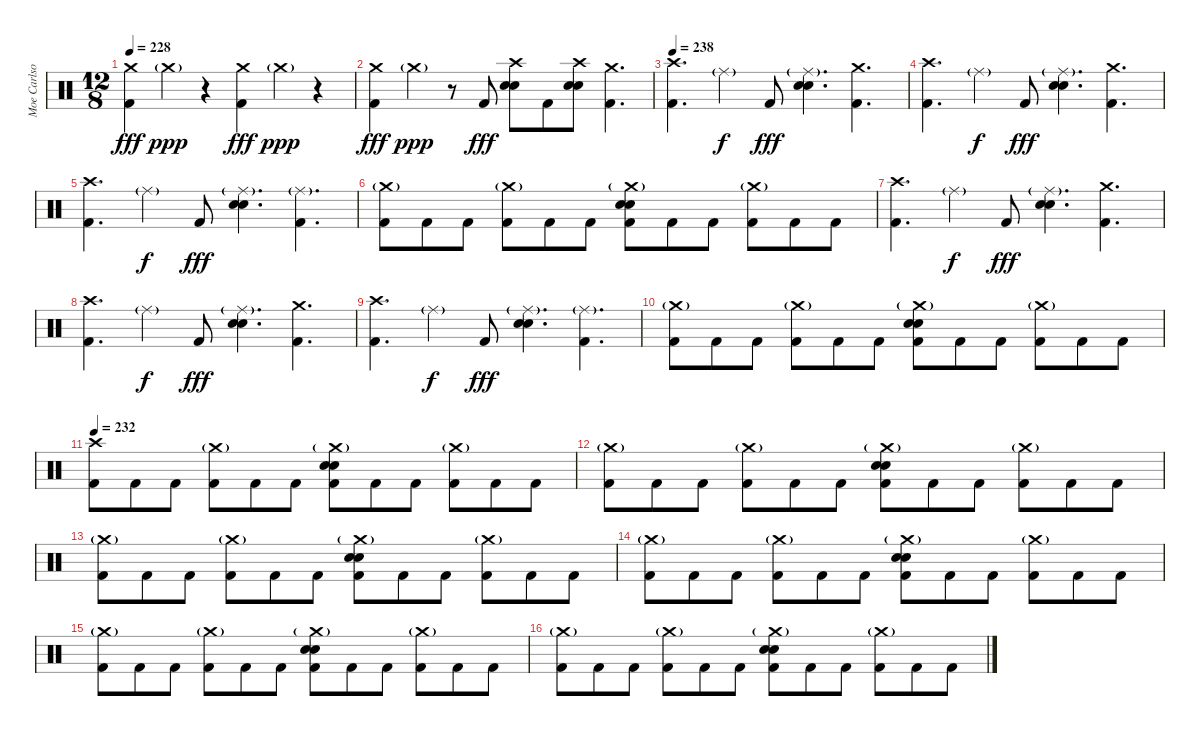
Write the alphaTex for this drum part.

\track ("Moe Carlson" "Moe Carlso") {instrument percussion}
\staff {score}
\articulation defaults
\ts (12 8)
\tempo 228
\clef neutral
\ks c
("Crash medium (hit)" "Kick (hit) 2").4{dy fff} "Crash medium (hit)"{g}.4{dy ppp} r.4 ("Crash medium (hit)" "Kick (hit) 2").4{dy fff} "Crash medium (hit)"{g}.4{dy ppp} r.4 |
("Crash medium (hit)" "Kick (hit) 2").4{dy fff} "Crash medium (hit)"{g}.4{dy ppp} r.8 "Kick (hit) 2".8{dy fff} ("Crash high (hit)" "Snare (hit) 2" "Electric Snare (hit)").8 "Kick (hit) 2".8 ("Crash high (hit)" "Snare (hit) 2" "Electric Snare (hit)").8 ("Crash medium (hit)" "Kick (hit) 2").4{d} |
\tempo 238
("Crash high (hit)" "Kick (hit) 2").4{d} "Ride (middle)"{g}.4{dy f} "Kick (hit) 2".8{dy fff} ("Ride (middle)"{g} "Snare (hit) 2" "Electric Snare (hit)").4{d} ("Crash medium (hit)" "Kick (hit) 2").4{d} |
("Crash high (hit)" "Kick (hit) 2").4{d} "Ride (middle)"{g}.4{dy f} "Kick (hit) 2".8{dy fff} ("Ride (middle)"{g} "Snare (hit) 2" "Electric Snare (hit)").4{d} ("Crash medium (hit)" "Kick (hit) 2").4{d} |
("Crash high (hit)" "Kick (hit) 2").4{d} "Ride (middle)"{g}.4{dy f} "Kick (hit) 2".8{dy fff} ("Ride (middle)"{g} "Snare (hit) 2" "Electric Snare (hit)").4{d} ("Ride (middle)"{g} "Kick (hit) 2").4{d} |
("Crash medium (hit)"{g} "Kick (hit) 2").8 "Kick (hit) 2".8 "Kick (hit) 2".8 ("Crash medium (hit)"{g} "Kick (hit) 2").8 "Kick (hit) 2".8 "Kick (hit) 2".8 ("Crash medium (hit)"{g} "Snare (hit) 2" "Electric Snare (hit)" "Kick (hit) 2").8 "Kick (hit) 2".8 "Kick (hit) 2".8 ("Crash medium (hit)"{g} "Kick (hit) 2").8 "Kick (hit) 2".8 "Kick (hit) 2".8 |
("Crash high (hit)" "Kick (hit) 2").4{d} "Ride (middle)"{g}.4{dy f} "Kick (hit) 2".8{dy fff} ("Ride (middle)"{g} "Snare (hit) 2" "Electric Snare (hit)").4{d} ("Crash medium (hit)" "Kick (hit) 2").4{d} |
("Crash high (hit)" "Kick (hit) 2").4{d} "Ride (middle)"{g}.4{dy f} "Kick (hit) 2".8{dy fff} ("Ride (middle)"{g} "Snare (hit) 2" "Electric Snare (hit)").4{d} ("Crash medium (hit)" "Kick (hit) 2").4{d} |
("Crash high (hit)" "Kick (hit) 2").4{d} "Ride (middle)"{g}.4{dy f} "Kick (hit) 2".8{dy fff} ("Ride (middle)"{g} "Snare (hit) 2" "Electric Snare (hit)").4{d} ("Ride (middle)"{g} "Kick (hit) 2").4{d} |
("Crash medium (hit)"{g} "Kick (hit) 2").8 "Kick (hit) 2".8 "Kick (hit) 2".8 ("Crash medium (hit)"{g} "Kick (hit) 2").8 "Kick (hit) 2".8 "Kick (hit) 2".8 ("Crash medium (hit)"{g} "Snare (hit) 2" "Electric Snare (hit)" "Kick (hit) 2").8 "Kick (hit) 2".8 "Kick (hit) 2".8 ("Crash medium (hit)"{g} "Kick (hit) 2").8 "Kick (hit) 2".8 "Kick (hit) 2".8 |
\tempo 232
("Crash high (hit)" "Kick (hit) 2").8 "Kick (hit) 2".8 "Kick (hit) 2".8 ("Crash medium (hit)"{g} "Kick (hit) 2").8 "Kick (hit) 2".8 "Kick (hit) 2".8 ("Crash medium (hit)"{g} "Snare (hit) 2" "Electric Snare (hit)" "Kick (hit) 2").8 "Kick (hit) 2".8 "Kick (hit) 2".8 ("Crash medium (hit)"{g} "Kick (hit) 2").8 "Kick (hit) 2".8 "Kick (hit) 2".8 |
("Crash medium (hit)"{g} "Kick (hit) 2").8 "Kick (hit) 2".8 "Kick (hit) 2".8 ("Crash medium (hit)"{g} "Kick (hit) 2").8 "Kick (hit) 2".8 "Kick (hit) 2".8 ("Crash medium (hit)"{g} "Snare (hit) 2" "Electric Snare (hit)" "Kick (hit) 2").8 "Kick (hit) 2".8 "Kick (hit) 2".8 ("Crash medium (hit)"{g} "Kick (hit) 2").8 "Kick (hit) 2".8 "Kick (hit) 2".8 |
("Crash medium (hit)"{g} "Kick (hit) 2").8 "Kick (hit) 2".8 "Kick (hit) 2".8 ("Crash medium (hit)"{g} "Kick (hit) 2").8 "Kick (hit) 2".8 "Kick (hit) 2".8 ("Crash medium (hit)"{g} "Snare (hit) 2" "Electric Snare (hit)" "Kick (hit) 2").8 "Kick (hit) 2".8 "Kick (hit) 2".8 ("Crash medium (hit)"{g} "Kick (hit) 2").8 "Kick (hit) 2".8 "Kick (hit) 2".8 |
("Crash medium (hit)"{g} "Kick (hit) 2").8 "Kick (hit) 2".8 "Kick (hit) 2".8 ("Crash medium (hit)"{g} "Kick (hit) 2").8 "Kick (hit) 2".8 "Kick (hit) 2".8 ("Crash medium (hit)"{g} "Snare (hit) 2" "Electric Snare (hit)" "Kick (hit) 2").8 "Kick (hit) 2".8 "Kick (hit) 2".8 ("Crash medium (hit)"{g} "Kick (hit) 2").8 "Kick (hit) 2".8 "Kick (hit) 2".8 |
("Crash medium (hit)"{g} "Kick (hit) 2").8 "Kick (hit) 2".8 "Kick (hit) 2".8 ("Crash medium (hit)"{g} "Kick (hit) 2").8 "Kick (hit) 2".8 "Kick (hit) 2".8 ("Crash medium (hit)"{g} "Snare (hit) 2" "Electric Snare (hit)" "Kick (hit) 2").8 "Kick (hit) 2".8 "Kick (hit) 2".8 ("Crash medium (hit)"{g} "Kick (hit) 2").8 "Kick (hit) 2".8 "Kick (hit) 2".8 |
("Crash medium (hit)"{g} "Kick (hit) 2").8 "Kick (hit) 2".8 "Kick (hit) 2".8 ("Crash medium (hit)"{g} "Kick (hit) 2").8 "Kick (hit) 2".8 "Kick (hit) 2".8 ("Crash medium (hit)"{g} "Snare (hit) 2" "Electric Snare (hit)" "Kick (hit) 2").8 "Kick (hit) 2".8 "Kick (hit) 2".8 ("Crash medium (hit)"{g} "Kick (hit) 2").8 "Kick (hit) 2".8 "Kick (hit) 2".8
